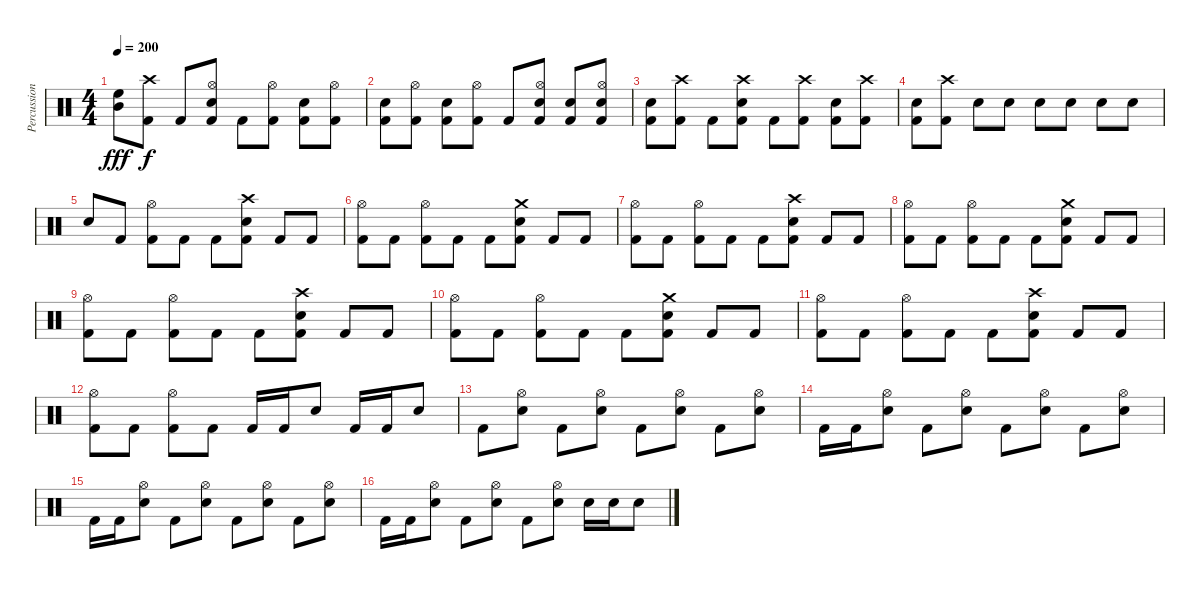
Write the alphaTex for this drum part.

\track ("Percussion" "Percussion") {instrument percussion}
\staff {score}
\articulation defaults
\ts (4 4)
\tempo 200
\clef neutral
\ks c
("Mid Tom (hit)" "High Floor Tom (hit)").8{dy fff} ("Crash high (hit)" "Kick (hit) 2").8{dy f} "Kick (hit) 2".8 ("Hi-Hat (open)" "Snare (hit) 2" "Kick (hit) 2").8 "Kick (hit) 2".8 ("Hi-Hat (open)" "Kick (hit) 2").8 ("Snare (hit) 2" "Kick (hit) 2").8 ("Hi-Hat (open)" "Kick (hit) 2").8 |
("Snare (hit) 2" "Kick (hit) 2").8 ("Hi-Hat (open)" "Kick (hit) 2").8 ("Snare (hit) 2" "Kick (hit) 2").8 ("Hi-Hat (open)" "Kick (hit) 2").8 "Kick (hit) 2".8 ("Hi-Hat (open)" "Snare (hit) 2" "Kick (hit) 2").8 ("Snare (hit) 2" "Kick (hit) 2").8 ("Hi-Hat (open)" "Snare (hit) 2" "Kick (hit) 2").8 |
("Snare (hit) 2" "Kick (hit) 2").8 ("Crash high (hit)" "Kick (hit) 2").8 "Kick (hit) 2".8 ("Crash high (hit)" "Snare (hit) 2" "Kick (hit) 2").8 "Kick (hit) 2".8 ("Crash high (hit)" "Kick (hit) 2").8 ("Snare (hit) 2" "Kick (hit) 2").8 ("Crash high (hit)" "Kick (hit) 2").8 |
("Snare (hit) 2" "Kick (hit) 2").8 ("Crash high (hit)" "Kick (hit) 2").8 "Snare (hit) 2".8 "Snare (hit) 2".8 "Snare (hit) 2".8 "Snare (hit) 2".8 "Snare (hit) 2".8 "Snare (hit) 2".8 |
"Snare (hit) 2".8 "Kick (hit) 2".8 ("Hi-Hat (open)" "Kick (hit) 2").8 "Kick (hit) 2".8 "Kick (hit) 2".8 ("Crash high (hit)" "Snare (hit) 2" "Kick (hit) 2").8 "Kick (hit) 2".8 "Kick (hit) 2".8 |
("Hi-Hat (open)" "Kick (hit) 2").8 "Kick (hit) 2".8 ("Hi-Hat (open)" "Kick (hit) 2").8 "Kick (hit) 2".8 "Kick (hit) 2".8 ("Crash medium (hit)" "Snare (hit) 2" "Kick (hit) 2").8 "Kick (hit) 2".8 "Kick (hit) 2".8 |
("Hi-Hat (open)" "Kick (hit) 2").8 "Kick (hit) 2".8 ("Hi-Hat (open)" "Kick (hit) 2").8 "Kick (hit) 2".8 "Kick (hit) 2".8 ("Crash high (hit)" "Snare (hit) 2" "Kick (hit) 2").8 "Kick (hit) 2".8 "Kick (hit) 2".8 |
("Hi-Hat (open)" "Kick (hit) 2").8 "Kick (hit) 2".8 ("Hi-Hat (open)" "Kick (hit) 2").8 "Kick (hit) 2".8 "Kick (hit) 2".8 ("Crash medium (hit)" "Snare (hit) 2" "Kick (hit) 2").8 "Kick (hit) 2".8 "Kick (hit) 2".8 |
("Hi-Hat (open)" "Kick (hit) 2").8 "Kick (hit) 2".8 ("Hi-Hat (open)" "Kick (hit) 2").8 "Kick (hit) 2".8 "Kick (hit) 2".8 ("Crash high (hit)" "Snare (hit) 2" "Kick (hit) 2").8 "Kick (hit) 2".8 "Kick (hit) 2".8 |
("Hi-Hat (open)" "Kick (hit) 2").8 "Kick (hit) 2".8 ("Hi-Hat (open)" "Kick (hit) 2").8 "Kick (hit) 2".8 "Kick (hit) 2".8 ("Crash medium (hit)" "Snare (hit) 2" "Kick (hit) 2").8 "Kick (hit) 2".8 "Kick (hit) 2".8 |
("Hi-Hat (open)" "Kick (hit) 2").8 "Kick (hit) 2".8 ("Hi-Hat (open)" "Kick (hit) 2").8 "Kick (hit) 2".8 "Kick (hit) 2".8 ("Crash high (hit)" "Snare (hit) 2" "Kick (hit) 2").8 "Kick (hit) 2".8 "Kick (hit) 2".8 |
("Hi-Hat (open)" "Kick (hit) 2").8 "Kick (hit) 2".8 ("Hi-Hat (open)" "Kick (hit) 2").8 "Kick (hit) 2".8 "Kick (hit) 2".16 "Kick (hit) 2".16 "Snare (hit) 2".8 "Kick (hit) 2".16 "Kick (hit) 2".16 "Snare (hit) 2".8 |
"Kick (hit) 2".8 ("Hi-Hat (open)" "Snare (hit) 2").8 "Kick (hit) 2".8 ("Hi-Hat (open)" "Snare (hit) 2").8 "Kick (hit) 2".8 ("Hi-Hat (open)" "Snare (hit) 2").8 "Kick (hit) 2".8 ("Hi-Hat (open)" "Snare (hit) 2").8 |
"Kick (hit) 2".16 "Kick (hit) 2".16 ("Hi-Hat (open)" "Snare (hit) 2").8 "Kick (hit) 2".8 ("Hi-Hat (open)" "Snare (hit) 2").8 "Kick (hit) 2".8 ("Hi-Hat (open)" "Snare (hit) 2").8 "Kick (hit) 2".8 ("Hi-Hat (open)" "Snare (hit) 2").8 |
"Kick (hit) 2".16 "Kick (hit) 2".16 ("Hi-Hat (open)" "Snare (hit) 2").8 "Kick (hit) 2".8 ("Hi-Hat (open)" "Snare (hit) 2").8 "Kick (hit) 2".8 ("Hi-Hat (open)" "Snare (hit) 2").8 "Kick (hit) 2".8 ("Hi-Hat (open)" "Snare (hit) 2").8 |
"Kick (hit) 2".16 "Kick (hit) 2".16 ("Hi-Hat (open)" "Snare (hit) 2").8 "Kick (hit) 2".8 ("Hi-Hat (open)" "Snare (hit) 2").8 "Kick (hit) 2".8 ("Hi-Hat (open)" "Snare (hit) 2").8 "Snare (hit) 2".16 "Snare (hit) 2".16 "Snare (hit) 2".8
